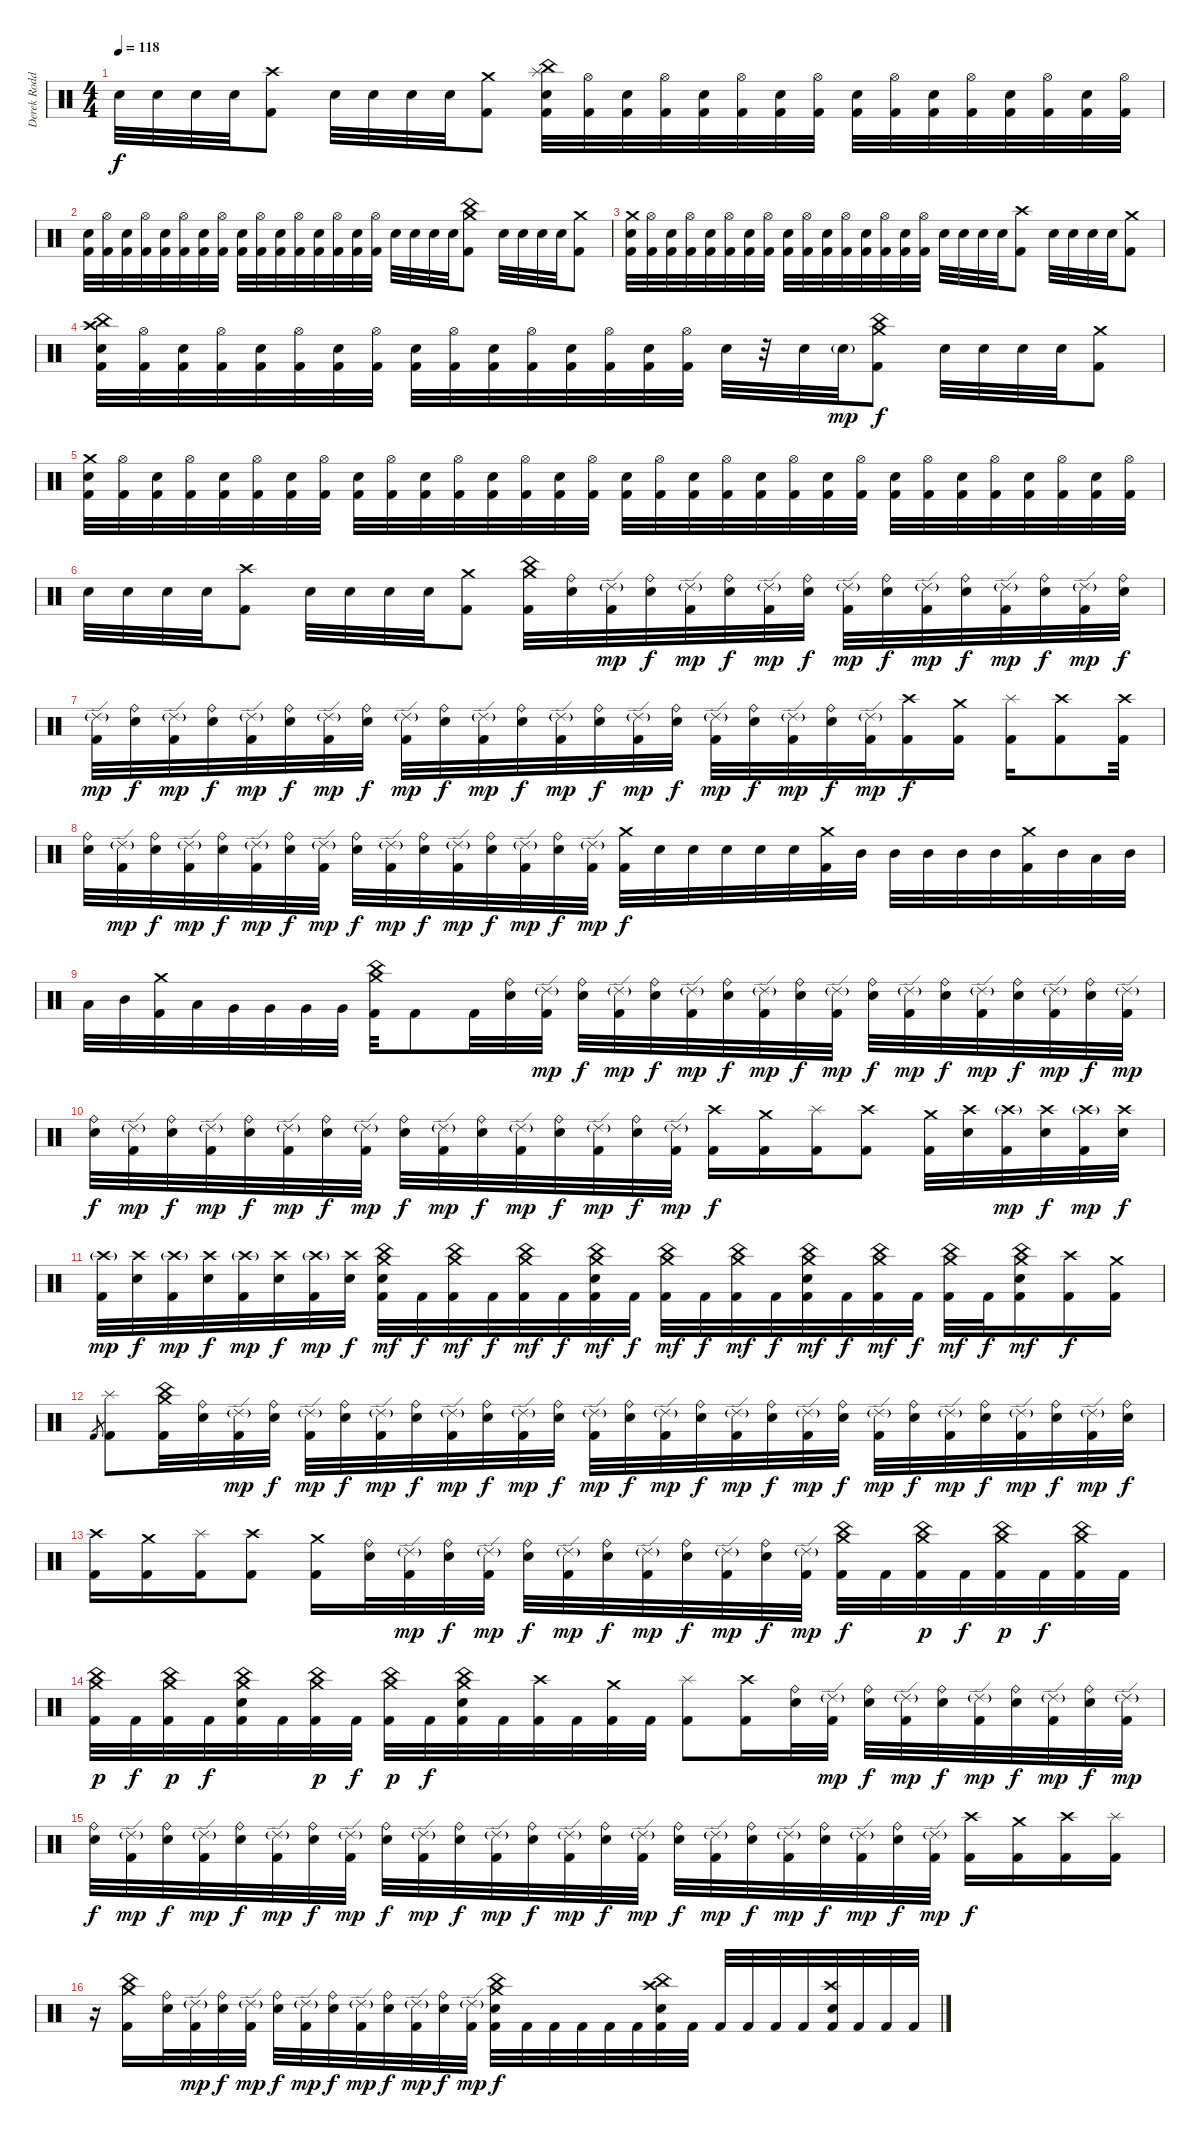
\track ("Derek Roddy" "Derek Rodd") {instrument percussion}
\staff {score}
\articulation defaults
\ts (4 4)
\tempo 118
\clef neutral
\ks c "Electric Snare (hit)".32{dy f} "Electric Snare (hit)".32 "Electric Snare (hit)".32 "Electric Snare (hit)".32
("Crash high (hit)" "Kick (hit) 2").8 "Electric Snare (hit)".32 "Electric Snare (hit)".32 "Electric Snare (hit)".32 "Electric Snare (hit)".32 ("Crash medium (hit)" "Kick (hit) 2").8 ("Splash (hit)" "China (hit)" "Electric Snare (hit)" "Kick (hit) 2").32 ("Hi-Hat (open)" "Kick (hit) 2").32 ("Electric Snare (hit)" "Kick (hit) 2").32 ("Hi-Hat (open)" "Kick (hit) 2").32 ("Electric Snare (hit)" "Kick (hit) 2").32 ("Hi-Hat (open)" "Kick (hit) 2").32 ("Electric Snare (hit)" "Kick (hit) 2").32 ("Hi-Hat (open)" "Kick (hit) 2").32 ("Electric Snare (hit)" "Kick (hit) 2").32 ("Hi-Hat (open)" "Kick (hit) 2").32 ("Electric Snare (hit)" "Kick (hit) 2").32 ("Hi-Hat (open)" "Kick (hit) 2").32 ("Electric Snare (hit)" "Kick (hit) 2").32 ("Hi-Hat (open)" "Kick (hit) 2").32 ("Electric Snare (hit)" "Kick (hit) 2").32 ("Hi-Hat (open)" "Kick (hit) 2").32 |
("Electric Snare (hit)" "Kick (hit) 2").32 ("Hi-Hat (open)" "Kick (hit) 2").32 ("Electric Snare (hit)" "Kick (hit) 2").32 ("Hi-Hat (open)" "Kick (hit) 2").32 ("Electric Snare (hit)" "Kick (hit) 2").32 ("Hi-Hat (open)" "Kick (hit) 2").32 ("Electric Snare (hit)" "Kick (hit) 2").32 ("Hi-Hat (open)" "Kick (hit) 2").32 ("Electric Snare (hit)" "Kick (hit) 2").32 ("Hi-Hat (open)" "Kick (hit) 2").32 ("Electric Snare (hit)" "Kick (hit) 2").32 ("Hi-Hat (open)" "Kick (hit) 2").32 ("Electric Snare (hit)" "Kick (hit) 2").32 ("Hi-Hat (open)" "Kick (hit) 2").32 ("Electric Snare (hit)" "Kick (hit) 2").32 ("Hi-Hat (open)" "Kick (hit) 2").32 "Electric Snare (hit)".32 "Electric Snare (hit)".32 "Electric Snare (hit)".32 "Electric Snare (hit)".32 ("Crash medium (hit)" "China (hit)" "Kick (hit) 2").8 "Electric Snare (hit)".32 "Electric Snare (hit)".32 "Electric Snare (hit)".32 "Electric Snare (hit)".32 ("Crash medium (hit)" "Kick (hit) 2").8 |
("Crash medium (hit)" "Electric Snare (hit)" "Kick (hit) 2").32 ("Hi-Hat (open)" "Kick (hit) 2").32 ("Electric Snare (hit)" "Kick (hit) 2").32 ("Hi-Hat (open)" "Kick (hit) 2").32 ("Electric Snare (hit)" "Kick (hit) 2").32 ("Hi-Hat (open)" "Kick (hit) 2").32 ("Electric Snare (hit)" "Kick (hit) 2").32 ("Hi-Hat (open)" "Kick (hit) 2").32 ("Electric Snare (hit)" "Kick (hit) 2").32 ("Hi-Hat (open)" "Kick (hit) 2").32 ("Electric Snare (hit)" "Kick (hit) 2").32 ("Hi-Hat (open)" "Kick (hit) 2").32 ("Electric Snare (hit)" "Kick (hit) 2").32 ("Hi-Hat (open)" "Kick (hit) 2").32 ("Electric Snare (hit)" "Kick (hit) 2").32 ("Hi-Hat (open)" "Kick (hit) 2").32 "Electric Snare (hit)".32 "Electric Snare (hit)".32 "Electric Snare (hit)".32 "Electric Snare (hit)".32 ("Crash high (hit)" "Kick (hit) 2").8 "Electric Snare (hit)".32 "Electric Snare (hit)".32 "Electric Snare (hit)".32 "Electric Snare (hit)".32 ("Crash medium (hit)" "Kick (hit) 2").8 |
("Crash high (hit)" "China (hit)" "Electric Snare (hit)" "Kick (hit) 2").32 ("Hi-Hat (open)" "Kick (hit) 2").32 ("Electric Snare (hit)" "Kick (hit) 2").32 ("Hi-Hat (open)" "Kick (hit) 2").32 ("Electric Snare (hit)" "Kick (hit) 2").32 ("Hi-Hat (open)" "Kick (hit) 2").32 ("Electric Snare (hit)" "Kick (hit) 2").32 ("Hi-Hat (open)" "Kick (hit) 2").32 ("Electric Snare (hit)" "Kick (hit) 2").32 ("Hi-Hat (open)" "Kick (hit) 2").32 ("Electric Snare (hit)" "Kick (hit) 2").32 ("Hi-Hat (open)" "Kick (hit) 2").32 ("Electric Snare (hit)" "Kick (hit) 2").32 ("Hi-Hat (open)" "Kick (hit) 2").32 ("Electric Snare (hit)" "Kick (hit) 2").32 ("Hi-Hat (open)" "Kick (hit) 2").32 "Electric Snare (hit)".32 r.32 "Electric Snare (hit)".32 "Electric Snare (hit)"{g}.32{dy mp} ("Crash medium (hit)" "China (hit)" "Kick (hit) 2").8{dy f} "Electric Snare (hit)".32 "Electric Snare (hit)".32 "Electric Snare (hit)".32 "Electric Snare (hit)".32 ("Crash medium (hit)" "Kick (hit) 2").8 |
("Crash medium (hit)" "Electric Snare (hit)" "Kick (hit) 2").32 ("Hi-Hat (open)" "Kick (hit) 2").32 ("Electric Snare (hit)" "Kick (hit) 2").32 ("Hi-Hat (open)" "Kick (hit) 2").32 ("Electric Snare (hit)" "Kick (hit) 2").32 ("Hi-Hat (open)" "Kick (hit) 2").32 ("Electric Snare (hit)" "Kick (hit) 2").32 ("Hi-Hat (open)" "Kick (hit) 2").32 ("Electric Snare (hit)" "Kick (hit) 2").32 ("Hi-Hat (open)" "Kick (hit) 2").32 ("Electric Snare (hit)" "Kick (hit) 2").32 ("Hi-Hat (open)" "Kick (hit) 2").32 ("Electric Snare (hit)" "Kick (hit) 2").32 ("Hi-Hat (open)" "Kick (hit) 2").32 ("Electric Snare (hit)" "Kick (hit) 2").32 ("Hi-Hat (open)" "Kick (hit) 2").32 ("Electric Snare (hit)" "Kick (hit) 2").32 ("Hi-Hat (open)" "Kick (hit) 2").32 ("Electric Snare (hit)" "Kick (hit) 2").32 ("Hi-Hat (open)" "Kick (hit) 2").32 ("Electric Snare (hit)" "Kick (hit) 2").32 ("Hi-Hat (open)" "Kick (hit) 2").32 ("Electric Snare (hit)" "Kick (hit) 2").32 ("Hi-Hat (open)" "Kick (hit) 2").32 ("Electric Snare (hit)" "Kick (hit) 2").32 ("Hi-Hat (open)" "Kick (hit) 2").32 ("Electric Snare (hit)" "Kick (hit) 2").32 ("Hi-Hat (open)" "Kick (hit) 2").32 ("Electric Snare (hit)" "Kick (hit) 2").32 ("Hi-Hat (open)" "Kick (hit) 2").32 ("Electric Snare (hit)" "Kick (hit) 2").32 ("Hi-Hat (open)" "Kick (hit) 2").32 |
"Electric Snare (hit)".32 "Electric Snare (hit)".32 "Electric Snare (hit)".32 "Electric Snare (hit)".32 ("Crash high (hit)" "Kick (hit) 2").8 "Electric Snare (hit)".32 "Electric Snare (hit)".32 "Electric Snare (hit)".32 "Electric Snare (hit)".32 ("Crash medium (hit)" "Kick (hit) 2").8 ("Crash medium (hit)" "China (hit)" "Kick (hit) 2").32 ("Ride (bell)" "Electric Snare (hit)").32 ("Ride (edge) 2"{g} "Kick (hit) 2").32{dy mp} ("Ride (bell)" "Electric Snare (hit)").32{dy f} ("Ride (edge) 2"{g} "Kick (hit) 2").32{dy mp} ("Ride (bell)" "Electric Snare (hit)").32{dy f} ("Ride (edge) 2"{g} "Kick (hit) 2").32{dy mp} ("Ride (bell)" "Electric Snare (hit)").32{dy f} ("Ride (edge) 2"{g} "Kick (hit) 2").32{dy mp} ("Ride (bell)" "Electric Snare (hit)").32{dy f} ("Ride (edge) 2"{g} "Kick (hit) 2").32{dy mp} ("Ride (bell)" "Electric Snare (hit)").32{dy f} ("Ride (edge) 2"{g} "Kick (hit) 2").32{dy mp} ("Ride (bell)" "Electric Snare (hit)").32{dy f} ("Ride (edge) 2"{g} "Kick (hit) 2").32{dy mp} ("Ride (bell)" "Electric Snare (hit)").32{dy f} |
("Ride (edge) 2"{g} "Kick (hit) 2").32{dy mp} ("Ride (bell)" "Electric Snare (hit)").32{dy f} ("Ride (edge) 2"{g} "Kick (hit) 2").32{dy mp} ("Ride (bell)" "Electric Snare (hit)").32{dy f} ("Ride (edge) 2"{g} "Kick (hit) 2").32{dy mp} ("Ride (bell)" "Electric Snare (hit)").32{dy f} ("Ride (edge) 2"{g} "Kick (hit) 2").32{dy mp} ("Ride (bell)" "Electric Snare (hit)").32{dy f} ("Ride (edge) 2"{g} "Kick (hit) 2").32{dy mp} ("Ride (bell)" "Electric Snare (hit)").32{dy f} ("Ride (edge) 2"{g} "Kick (hit) 2").32{dy mp} ("Ride (bell)" "Electric Snare (hit)").32{dy f} ("Ride (edge) 2"{g} "Kick (hit) 2").32{dy mp} ("Ride (bell)" "Electric Snare (hit)").32{dy f} ("Ride (edge) 2"{g} "Kick (hit) 2").32{dy mp} ("Ride (bell)" "Electric Snare (hit)").32{dy f} ("Ride (edge) 2"{g} "Kick (hit) 2").32{dy mp} ("Ride (bell)" "Electric Snare (hit)").32{dy f} ("Ride (edge) 2"{g} "Kick (hit) 2").32{dy mp} ("Ride (bell)" "Electric Snare (hit)").32{dy f} ("Ride (edge) 2"{g} "Kick (hit) 2").32{dy mp} ("Crash high (hit)" "Kick (hit) 2").16{dy f} ("Crash medium (hit)" "Kick (hit) 2").16 ("Splash (hit)" "Kick (hit) 2").16 ("Crash high (hit)" "Kick (hit) 2").8 ("Crash high (hit)" "Kick (hit) 2").32 |
("Ride (bell)" "Electric Snare (hit)").32 ("Ride (edge) 2"{g} "Kick (hit) 2").32{dy mp} ("Ride (bell)" "Electric Snare (hit)").32{dy f} ("Ride (edge) 2"{g} "Kick (hit) 2").32{dy mp} ("Ride (bell)" "Electric Snare (hit)").32{dy f} ("Ride (edge) 2"{g} "Kick (hit) 2").32{dy mp} ("Ride (bell)" "Electric Snare (hit)").32{dy f} ("Ride (edge) 2"{g} "Kick (hit) 2").32{dy mp} ("Ride (bell)" "Electric Snare (hit)").32{dy f} ("Ride (edge) 2"{g} "Kick (hit) 2").32{dy mp} ("Ride (bell)" "Electric Snare (hit)").32{dy f} ("Ride (edge) 2"{g} "Kick (hit) 2").32{dy mp} ("Ride (bell)" "Electric Snare (hit)").32{dy f} ("Ride (edge) 2"{g} "Kick (hit) 2").32{dy mp} ("Ride (bell)" "Electric Snare (hit)").32{dy f} ("Ride (edge) 2"{g} "Kick (hit) 2").32{dy mp} ("Crash medium (hit)" "Kick (hit) 2").32{dy f} "Electric Snare (hit)".32 "Electric Snare (hit)".32 "Electric Snare (hit)".32 "Electric Snare (hit)".32 "Electric Snare (hit)".32 ("Crash medium (hit)" "Kick (hit) 2").32 "Mid Tom (hit)".32 "Mid Tom (hit)".32 "Mid Tom (hit)".32 "Mid Tom (hit)".32 "Mid Tom (hit)".32 ("Crash medium (hit)" "Kick (hit) 2").32 "Mid Tom (hit)".32 "Low Tom (hit)".32 "Mid Tom (hit)".32 |
"Low Tom (hit)".32 "Mid Tom (hit)".32 ("Crash medium (hit)" "Kick (hit) 2").32 "Low Tom (hit)".32 "Very Low Tom (hit)".32 "Very Low Tom (hit)".32 "Very Low Tom (hit)".32 "Very Low Tom (hit)".32 ("Crash medium (hit)" "China (hit)" "Kick (hit) 2").32 "Kick (hit) 2".8 "Kick (hit) 2".32 ("Ride (bell)" "Electric Snare (hit)").32 ("Ride (edge) 2"{g} "Kick (hit) 2").32{dy mp} ("Ride (bell)" "Electric Snare (hit)").32{dy f} ("Ride (edge) 2"{g} "Kick (hit) 2").32{dy mp} ("Ride (bell)" "Electric Snare (hit)").32{dy f} ("Ride (edge) 2"{g} "Kick (hit) 2").32{dy mp} ("Ride (bell)" "Electric Snare (hit)").32{dy f} ("Ride (edge) 2"{g} "Kick (hit) 2").32{dy mp} ("Ride (bell)" "Electric Snare (hit)").32{dy f} ("Ride (edge) 2"{g} "Kick (hit) 2").32{dy mp} ("Ride (bell)" "Electric Snare (hit)").32{dy f} ("Ride (edge) 2"{g} "Kick (hit) 2").32{dy mp} ("Ride (bell)" "Electric Snare (hit)").32{dy f} ("Ride (edge) 2"{g} "Kick (hit) 2").32{dy mp} ("Ride (bell)" "Electric Snare (hit)").32{dy f} ("Ride (edge) 2"{g} "Kick (hit) 2").32{dy mp} ("Ride (bell)" "Electric Snare (hit)").32{dy f} ("Ride (edge) 2"{g} "Kick (hit) 2").32{dy mp} |
("Ride (bell)" "Electric Snare (hit)").32{dy f} ("Ride (edge) 2"{g} "Kick (hit) 2").32{dy mp} ("Ride (bell)" "Electric Snare (hit)").32{dy f} ("Ride (edge) 2"{g} "Kick (hit) 2").32{dy mp} ("Ride (bell)" "Electric Snare (hit)").32{dy f} ("Ride (edge) 2"{g} "Kick (hit) 2").32{dy mp} ("Ride (bell)" "Electric Snare (hit)").32{dy f} ("Ride (edge) 2"{g} "Kick (hit) 2").32{dy mp} ("Ride (bell)" "Electric Snare (hit)").32{dy f} ("Ride (edge) 2"{g} "Kick (hit) 2").32{dy mp} ("Ride (bell)" "Electric Snare (hit)").32{dy f} ("Ride (edge) 2"{g} "Kick (hit) 2").32{dy mp} ("Ride (bell)" "Electric Snare (hit)").32{dy f} ("Ride (edge) 2"{g} "Kick (hit) 2").32{dy mp} ("Ride (bell)" "Electric Snare (hit)").32{dy f} ("Ride (edge) 2"{g} "Kick (hit) 2").32{dy mp} ("Crash high (hit)" "Kick (hit) 2").16{dy f} ("Crash medium (hit)" "Kick (hit) 2").16 ("Splash (hit)" "Kick (hit) 2").16 ("Crash high (hit)" "Kick (hit) 2").8 ("Crash medium (hit)" "Kick (hit) 2").32 ("Crash high (hit)" "Electric Snare (hit)").32 ("Crash high (hit)"{g} "Kick (hit) 2").32{dy mp} ("Crash high (hit)" "Electric Snare (hit)").32{dy f} ("Crash high (hit)"{g} "Kick (hit) 2").32{dy mp} ("Crash high (hit)" "Electric Snare (hit)").32{dy f} |
("Crash high (hit)"{g} "Kick (hit) 2").32{dy mp} ("Crash high (hit)" "Electric Snare (hit)").32{dy f} ("Crash high (hit)"{g} "Kick (hit) 2").32{dy mp} ("Crash high (hit)" "Electric Snare (hit)").32{dy f} ("Crash high (hit)"{g} "Kick (hit) 2").32{dy mp} ("Crash high (hit)" "Electric Snare (hit)").32{dy f} ("Crash high (hit)"{g} "Kick (hit) 2").32{dy mp} ("Crash high (hit)" "Electric Snare (hit)").32{dy f} ("Crash medium (hit)" "China (hit)" "Electric Snare (hit)" "Kick (hit) 2").32{dy mf} "Kick (hit) 2".32{dy f} ("Crash medium (hit)" "China (hit)" "Kick (hit) 2").32{dy mf} "Kick (hit) 2".32{dy f} ("Crash medium (hit)" "China (hit)" "Kick (hit) 2").32{dy mf} "Kick (hit) 2".32{dy f} ("Crash medium (hit)" "China (hit)" "Electric Snare (hit)" "Kick (hit) 2").32{dy mf} "Kick (hit) 2".32{dy f} ("Crash medium (hit)" "China (hit)" "Kick (hit) 2").32{dy mf} "Kick (hit) 2".32{dy f} ("Crash medium (hit)" "China (hit)" "Kick (hit) 2").32{dy mf} "Kick (hit) 2".32{dy f} ("Crash medium (hit)" "China (hit)" "Electric Snare (hit)" "Kick (hit) 2").32{dy mf} "Kick (hit) 2".32{dy f} ("Crash medium (hit)" "China (hit)" "Kick (hit) 2").32{dy mf} "Kick (hit) 2".32{dy f} ("Crash medium (hit)" "China (hit)" "Kick (hit) 2").32{dy mf} "Kick (hit) 2".32{dy f} ("Crash medium (hit)" "China (hit)" "Electric Snare (hit)" "Kick (hit) 2").16{dy mf} ("Crash high (hit)" "Kick (hit) 2").16{dy f} ("Crash medium (hit)" "Kick (hit) 2").16 |
"Kick (hit) 2".8{gr} ("Splash (hit)" "Kick (hit) 2").8 ("Crash medium (hit)" "China (hit)" "Kick (hit) 2").32 ("Ride (bell)" "Electric Snare (hit)").32 ("Ride (edge) 2"{g} "Kick (hit) 2").32{dy mp} ("Ride (bell)" "Electric Snare (hit)").32{dy f} ("Ride (edge) 2"{g} "Kick (hit) 2").32{dy mp} ("Ride (bell)" "Electric Snare (hit)").32{dy f} ("Ride (edge) 2"{g} "Kick (hit) 2").32{dy mp} ("Ride (bell)" "Electric Snare (hit)").32{dy f} ("Ride (edge) 2"{g} "Kick (hit) 2").32{dy mp} ("Ride (bell)" "Electric Snare (hit)").32{dy f} ("Ride (edge) 2"{g} "Kick (hit) 2").32{dy mp} ("Ride (bell)" "Electric Snare (hit)").32{dy f} ("Ride (edge) 2"{g} "Kick (hit) 2").32{dy mp} ("Ride (bell)" "Electric Snare (hit)").32{dy f} ("Ride (edge) 2"{g} "Kick (hit) 2").32{dy mp} ("Ride (bell)" "Electric Snare (hit)").32{dy f} ("Ride (edge) 2"{g} "Kick (hit) 2").32{dy mp} ("Ride (bell)" "Electric Snare (hit)").32{dy f} ("Ride (edge) 2"{g} "Kick (hit) 2").32{dy mp} ("Ride (bell)" "Electric Snare (hit)").32{dy f} ("Ride (edge) 2"{g} "Kick (hit) 2").32{dy mp} ("Ride (bell)" "Electric Snare (hit)").32{dy f} ("Ride (edge) 2"{g} "Kick (hit) 2").32{dy mp} ("Ride (bell)" "Electric Snare (hit)").32{dy f} ("Ride (edge) 2"{g} "Kick (hit) 2").32{dy mp} ("Ride (bell)" "Electric Snare (hit)").32{dy f} ("Ride (edge) 2"{g} "Kick (hit) 2").32{dy mp} ("Ride (bell)" "Electric Snare (hit)").32{dy f} |
("Crash high (hit)" "Kick (hit) 2").16 ("Crash medium (hit)" "Kick (hit) 2").16 ("Splash (hit)" "Kick (hit) 2").16 ("Crash high (hit)" "Kick (hit) 2").8 ("Crash medium (hit)" "Kick (hit) 2").16 ("Ride (bell)" "Electric Snare (hit)").32 ("Ride (edge) 2"{g} "Kick (hit) 2").32{dy mp} ("Ride (bell)" "Electric Snare (hit)").32{dy f} ("Ride (edge) 2"{g} "Kick (hit) 2").32{dy mp} ("Ride (bell)" "Electric Snare (hit)").32{dy f} ("Ride (edge) 2"{g} "Kick (hit) 2").32{dy mp} ("Ride (bell)" "Electric Snare (hit)").32{dy f} ("Ride (edge) 2"{g} "Kick (hit) 2").32{dy mp} ("Ride (bell)" "Electric Snare (hit)").32{dy f} ("Ride (edge) 2"{g} "Kick (hit) 2").32{dy mp} ("Ride (bell)" "Electric Snare (hit)").32{dy f} ("Ride (edge) 2"{g} "Kick (hit) 2").32{dy mp} ("Crash medium (hit)" "China (hit)" "Kick (hit) 2").32{dy f} "Kick (hit) 2".32 ("Crash medium (hit)" "China (hit)" "Kick (hit) 2").32{dy p} "Kick (hit) 2".32{dy f} ("Crash medium (hit)" "China (hit)" "Kick (hit) 2").32{dy p} "Kick (hit) 2".32{dy f} ("Crash medium (hit)" "China (hit)" "Kick (hit) 2").32 "Kick (hit) 2".32 |
("Crash medium (hit)" "China (hit)" "Kick (hit) 2").32{dy p} "Kick (hit) 2".32{dy f} ("Crash medium (hit)" "China (hit)" "Kick (hit) 2").32{dy p} "Kick (hit) 2".32{dy f} ("Crash medium (hit)" "China (hit)" "Electric Snare (hit)" "Kick (hit) 2").32 "Kick (hit) 2".32 ("Crash medium (hit)" "China (hit)" "Kick (hit) 2").32{dy p} "Kick (hit) 2".32{dy f} ("Crash medium (hit)" "China (hit)" "Kick (hit) 2").32{dy p} "Kick (hit) 2".32{dy f} ("Crash medium (hit)" "China (hit)" "Electric Snare (hit)" "Kick (hit) 2").32 "Kick (hit) 2".32 ("Crash high (hit)" "Kick (hit) 2").32 "Kick (hit) 2".32 ("Crash medium (hit)" "Kick (hit) 2").32 "Kick (hit) 2".32 ("Splash (hit)" "Kick (hit) 2").8 ("Crash high (hit)" "Kick (hit) 2").16 ("Ride (bell)" "Electric Snare (hit)").32 ("Ride (edge) 2"{g} "Kick (hit) 2").32{dy mp} ("Ride (bell)" "Electric Snare (hit)").32{dy f} ("Ride (edge) 2"{g} "Kick (hit) 2").32{dy mp} ("Ride (bell)" "Electric Snare (hit)").32{dy f} ("Ride (edge) 2"{g} "Kick (hit) 2").32{dy mp} ("Ride (bell)" "Electric Snare (hit)").32{dy f} ("Ride (edge) 2"{g} "Kick (hit) 2").32{dy mp} ("Ride (bell)" "Electric Snare (hit)").32{dy f} ("Ride (edge) 2"{g} "Kick (hit) 2").32{dy mp} |
("Ride (bell)" "Electric Snare (hit)").32{dy f} ("Ride (edge) 2"{g} "Kick (hit) 2").32{dy mp} ("Ride (bell)" "Electric Snare (hit)").32{dy f} ("Ride (edge) 2"{g} "Kick (hit) 2").32{dy mp} ("Ride (bell)" "Electric Snare (hit)").32{dy f} ("Ride (edge) 2"{g} "Kick (hit) 2").32{dy mp} ("Ride (bell)" "Electric Snare (hit)").32{dy f} ("Ride (edge) 2"{g} "Kick (hit) 2").32{dy mp} ("Ride (bell)" "Electric Snare (hit)").32{dy f} ("Ride (edge) 2"{g} "Kick (hit) 2").32{dy mp} ("Ride (bell)" "Electric Snare (hit)").32{dy f} ("Ride (edge) 2"{g} "Kick (hit) 2").32{dy mp} ("Ride (bell)" "Electric Snare (hit)").32{dy f} ("Ride (edge) 2"{g} "Kick (hit) 2").32{dy mp} ("Ride (bell)" "Electric Snare (hit)").32{dy f} ("Ride (edge) 2"{g} "Kick (hit) 2").32{dy mp} ("Ride (bell)" "Electric Snare (hit)").32{dy f} ("Ride (edge) 2"{g} "Kick (hit) 2").32{dy mp} ("Ride (bell)" "Electric Snare (hit)").32{dy f} ("Ride (edge) 2"{g} "Kick (hit) 2").32{dy mp} ("Ride (bell)" "Electric Snare (hit)").32{dy f} ("Ride (edge) 2"{g} "Kick (hit) 2").32{dy mp} ("Ride (bell)" "Electric Snare (hit)").32{dy f} ("Ride (edge) 2"{g} "Kick (hit) 2").32{dy mp} ("Crash high (hit)" "Kick (hit) 2").16{dy f} ("Crash medium (hit)" "Kick (hit) 2").16 ("Crash high (hit)" "Kick (hit) 2").16 ("Splash (hit)" "Kick (hit) 2").16 |
r.16 ("Crash medium (hit)" "China (hit)" "Kick (hit) 2").16 ("Ride (bell)" "Electric Snare (hit)").32 ("Ride (edge) 2"{g} "Kick (hit) 2").32{dy mp} ("Ride (bell)" "Electric Snare (hit)").32{dy f} ("Ride (edge) 2"{g} "Kick (hit) 2").32{dy mp} ("Ride (bell)" "Electric Snare (hit)").32{dy f} ("Ride (edge) 2"{g} "Kick (hit) 2").32{dy mp} ("Ride (bell)" "Electric Snare (hit)").32{dy f} ("Ride (edge) 2"{g} "Kick (hit) 2").32{dy mp} ("Ride (bell)" "Electric Snare (hit)").32{dy f} ("Ride (edge) 2"{g} "Kick (hit) 2").32{dy mp} ("Ride (bell)" "Electric Snare (hit)").32{dy f} ("Ride (edge) 2"{g} "Kick (hit) 2").32{dy mp} ("Crash medium (hit)" "China (hit)" "Electric Snare (hit)" "Kick (hit) 2").32{dy f} "Kick (hit) 2".32 "Kick (hit) 2".32 "Kick (hit) 2".32 "Kick (hit) 2".32 "Kick (hit) 2".32 ("Crash high (hit)" "China (hit)" "Electric Snare (hit)" "Kick (hit) 2").32 "Kick (hit) 2".32 "Kick (hit) 2".32 "Kick (hit) 2".32 "Kick (hit) 2".32 "Kick (hit) 2".32 ("Crash high (hit)" "Electric Snare (hit)" "Kick (hit) 2").32 "Kick (hit) 2".32 "Kick (hit) 2".32 "Kick (hit) 2".32
